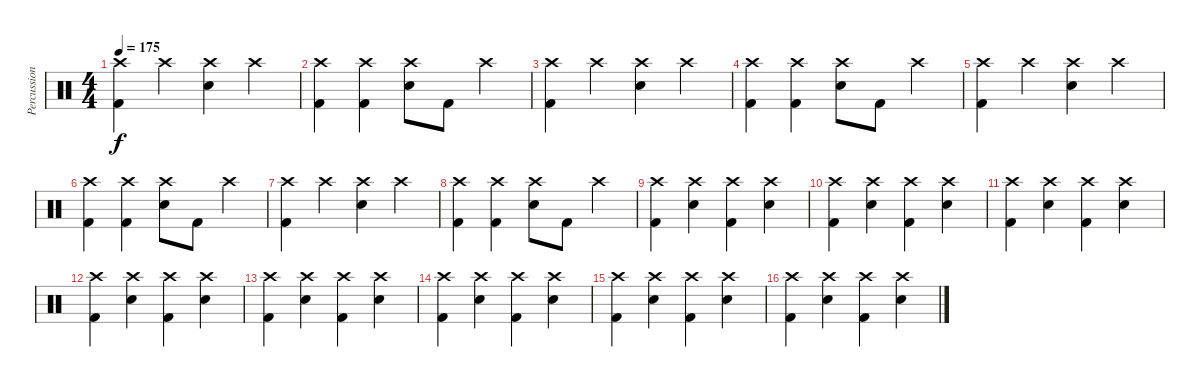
\track ("Percussion" "Percussion") {instrument percussion}
\staff {score}
\articulation defaults
\ts (4 4)
\tempo 175
\clef neutral
\ks c
("Crash high (hit)" "Kick (hit) 2").4{dy f} "Crash high (hit)".4 ("Crash high (hit)" "Electric Snare (hit)").4 "Crash high (hit)".4 |
("Crash high (hit)" "Kick (hit) 2").4 ("Crash high (hit)" "Kick (hit) 2").4 ("Crash high (hit)" "Electric Snare (hit)").8 "Kick (hit) 2".8 "Crash high (hit)".4 |
("Crash high (hit)" "Kick (hit) 2").4 "Crash high (hit)".4 ("Crash high (hit)" "Electric Snare (hit)").4 "Crash high (hit)".4 |
("Crash high (hit)" "Kick (hit) 2").4 ("Crash high (hit)" "Kick (hit) 2").4 ("Crash high (hit)" "Electric Snare (hit)").8 "Kick (hit) 2".8 "Crash high (hit)".4 |
("Crash high (hit)" "Kick (hit) 2").4 "Crash high (hit)".4 ("Crash high (hit)" "Electric Snare (hit)").4 "Crash high (hit)".4 |
("Crash high (hit)" "Kick (hit) 2").4 ("Crash high (hit)" "Kick (hit) 2").4 ("Crash high (hit)" "Electric Snare (hit)").8 "Kick (hit) 2".8 "Crash high (hit)".4 |
("Crash high (hit)" "Kick (hit) 2").4 "Crash high (hit)".4 ("Crash high (hit)" "Electric Snare (hit)").4 "Crash high (hit)".4 |
("Crash high (hit)" "Kick (hit) 2").4 ("Crash high (hit)" "Kick (hit) 2").4 ("Crash high (hit)" "Electric Snare (hit)").8 "Kick (hit) 2".8 "Crash high (hit)".4 |
("Crash high (hit)" "Kick (hit) 2").4 ("Crash high (hit)" "Electric Snare (hit)").4 ("Crash high (hit)" "Kick (hit) 2").4 ("Crash high (hit)" "Electric Snare (hit)").4 |
("Crash high (hit)" "Kick (hit) 2").4 ("Crash high (hit)" "Electric Snare (hit)").4 ("Crash high (hit)" "Kick (hit) 2").4 ("Crash high (hit)" "Electric Snare (hit)").4 |
("Crash high (hit)" "Kick (hit) 2").4 ("Crash high (hit)" "Electric Snare (hit)").4 ("Crash high (hit)" "Kick (hit) 2").4 ("Crash high (hit)" "Electric Snare (hit)").4 |
("Crash high (hit)" "Kick (hit) 2").4 ("Crash high (hit)" "Electric Snare (hit)").4 ("Crash high (hit)" "Kick (hit) 2").4 ("Crash high (hit)" "Electric Snare (hit)").4 |
("Crash high (hit)" "Kick (hit) 2").4 ("Crash high (hit)" "Electric Snare (hit)").4 ("Crash high (hit)" "Kick (hit) 2").4 ("Crash high (hit)" "Electric Snare (hit)").4 |
("Crash high (hit)" "Kick (hit) 2").4 ("Crash high (hit)" "Electric Snare (hit)").4 ("Crash high (hit)" "Kick (hit) 2").4 ("Crash high (hit)" "Electric Snare (hit)").4 |
("Crash high (hit)" "Kick (hit) 2").4 ("Crash high (hit)" "Electric Snare (hit)").4 ("Crash high (hit)" "Kick (hit) 2").4 ("Crash high (hit)" "Electric Snare (hit)").4 |
("Crash high (hit)" "Kick (hit) 2").4 ("Crash high (hit)" "Electric Snare (hit)").4 ("Crash high (hit)" "Kick (hit) 2").4 ("Crash high (hit)" "Electric Snare (hit)").4
